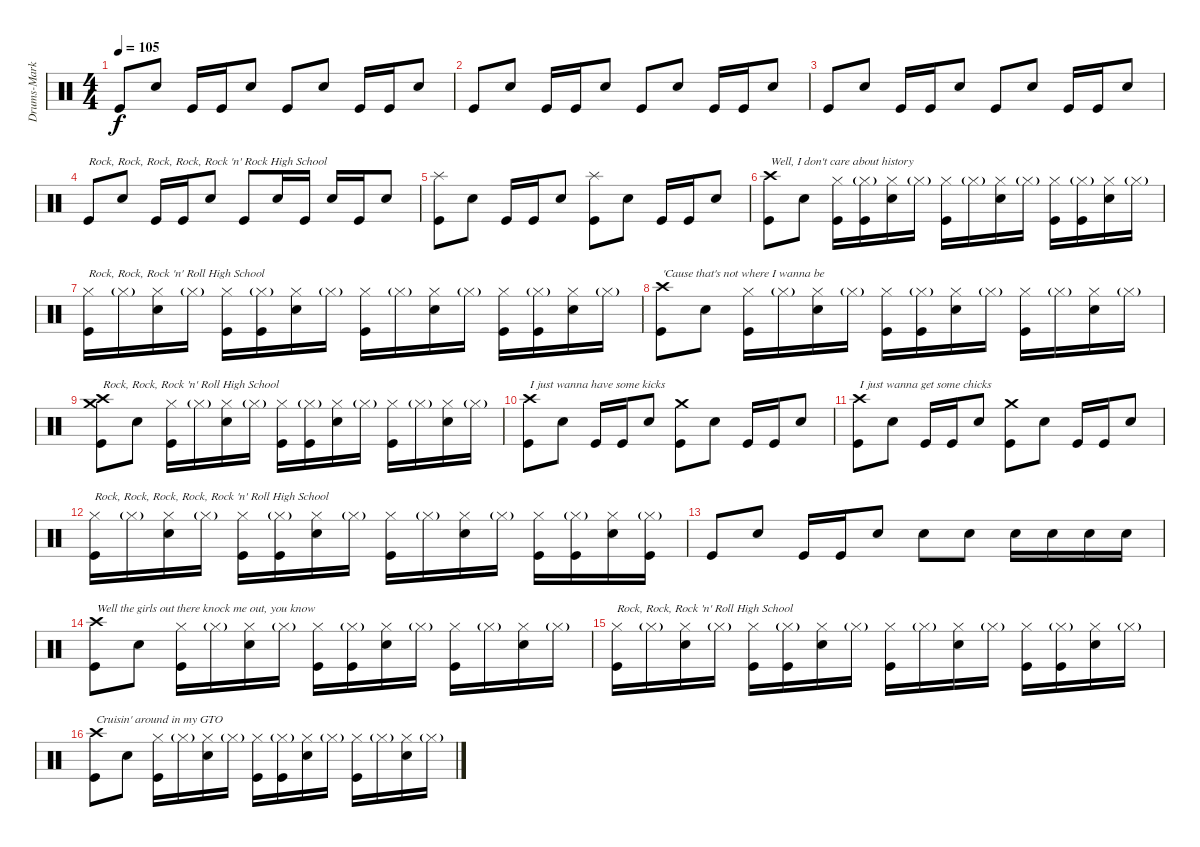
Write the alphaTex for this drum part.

\track ("Drums-Marky Ramone" "Drums-Mark") {instrument percussion}
\staff {score}
\articulation defaults
\ts (4 4)
\tempo 105
\clef neutral
\ks c "Kick (hit)".8{dy f} "Snare (hit) 2".8 "Kick (hit)".16 "Kick (hit)".16 "Snare (hit) 2".8 "Kick (hit)".8 "Snare (hit) 2".8 "Kick (hit)".16 "Kick (hit)".16 "Snare (hit) 2".8
|
"Kick (hit)".8 "Snare (hit) 2".8 "Kick (hit)".16 "Kick (hit)".16 "Snare (hit) 2".8 "Kick (hit)".8 "Snare (hit) 2".8 "Kick (hit)".16 "Kick (hit)".16 "Snare (hit) 2".8 |
"Kick (hit)".8 "Snare (hit) 2".8 "Kick (hit)".16 "Kick (hit)".16 "Snare (hit) 2".8 "Kick (hit)".8 "Snare (hit) 2".8 "Kick (hit)".16 "Kick (hit)".16 "Snare (hit) 2".8 |
"Kick (hit)".8{txt "Rock, Rock, Rock, Rock, Rock 'n' Rock High School"} "Snare (hit) 2".8 "Kick (hit)".16 "Kick (hit)".16 "Snare (hit) 2".8 "Kick (hit)".8 "Snare (hit) 2".16 "Kick (hit)".16 "Snare (hit) 2".16 "Kick (hit)".16 "Snare (hit) 2".8 |
("Splash (hit)" "Kick (hit)").8 "Snare (hit) 2".8 "Kick (hit)".16 "Kick (hit)".16 "Snare (hit) 2".8 ("Splash (hit)" "Kick (hit)").8 "Snare (hit) 2".8 "Kick (hit)".16 "Kick (hit)".16 "Snare (hit) 2".8 |
("Crash high (hit)" "Kick (hit)").8{txt "Well, I don't care about history"} "Snare (hit) 2".8 ("Hi-Hat (closed)" "Kick (hit)").16 ("Hi-Hat (closed)"{g} "Kick (hit)").16 ("Hi-Hat (closed)" "Snare (hit) 2").16 "Hi-Hat (closed)"{g}.16 ("Hi-Hat (closed)" "Kick (hit)").16 "Hi-Hat (closed)"{g}.16 ("Hi-Hat (closed)" "Snare (hit) 2").16 "Hi-Hat (closed)"{g}.16 ("Hi-Hat (closed)" "Kick (hit)").16 ("Hi-Hat (closed)"{g} "Kick (hit)").16 ("Hi-Hat (closed)" "Snare (hit) 2").16 "Hi-Hat (closed)"{g}.16 |
("Hi-Hat (closed)" "Kick (hit)").16{txt "Rock, Rock, Rock 'n' Roll High School"} "Hi-Hat (closed)"{g}.16 ("Hi-Hat (closed)" "Snare (hit) 2").16 "Hi-Hat (closed)"{g}.16 ("Hi-Hat (closed)" "Kick (hit)").16 ("Hi-Hat (closed)"{g} "Kick (hit)").16 ("Hi-Hat (closed)" "Snare (hit) 2").16 "Hi-Hat (closed)"{g}.16 ("Hi-Hat (closed)" "Kick (hit)").16 "Hi-Hat (closed)"{g}.16 ("Hi-Hat (closed)" "Snare (hit) 2").16 "Hi-Hat (closed)"{g}.16 ("Hi-Hat (closed)" "Kick (hit)").16 ("Hi-Hat (closed)"{g} "Kick (hit)").16 ("Hi-Hat (closed)" "Snare (hit) 2").16 "Hi-Hat (closed)"{g}.16 |
("Crash high (hit)" "Kick (hit)").8{txt "'Cause that's not where I wanna be"} "Snare (hit) 2".8 ("Hi-Hat (closed)" "Kick (hit)").16 "Hi-Hat (closed)"{g}.16 ("Hi-Hat (closed)" "Snare (hit) 2").16 "Hi-Hat (closed)"{g}.16 ("Hi-Hat (closed)" "Kick (hit)").16 ("Hi-Hat (closed)"{g} "Kick (hit)").16 ("Hi-Hat (closed)" "Snare (hit) 2").16 "Hi-Hat (closed)"{g}.16 ("Hi-Hat (closed)" "Kick (hit)").16 "Hi-Hat (closed)"{g}.16 ("Hi-Hat (closed)" "Snare (hit) 2").16 "Hi-Hat (closed)"{g}.16 |
("Crash high (hit)" "Crash medium (hit)" "Kick (hit)").8{txt "Rock, Rock, Rock 'n' Roll High School"} "Snare (hit) 2".8 ("Hi-Hat (closed)" "Kick (hit)").16 "Hi-Hat (closed)"{g}.16 ("Hi-Hat (closed)" "Snare (hit) 2").16 "Hi-Hat (closed)"{g}.16 ("Hi-Hat (closed)" "Kick (hit)").16 ("Hi-Hat (closed)"{g} "Kick (hit)").16 ("Hi-Hat (closed)" "Snare (hit) 2").16 "Hi-Hat (closed)"{g}.16 ("Hi-Hat (closed)" "Kick (hit)").16 "Hi-Hat (closed)"{g}.16 ("Hi-Hat (closed)" "Snare (hit) 2").16 "Hi-Hat (closed)"{g}.16 |
("Crash high (hit)" "Kick (hit)").8{txt "I just wanna have some kicks"} "Snare (hit) 2".8 "Kick (hit)".16 "Kick (hit)".16 "Snare (hit) 2".8 ("Crash medium (hit)" "Kick (hit)").8 "Snare (hit) 2".8 "Kick (hit)".16 "Kick (hit)".16 "Snare (hit) 2".8 |
("Crash high (hit)" "Kick (hit)").8{txt "I just wanna get some chicks"} "Snare (hit) 2".8 "Kick (hit)".16 "Kick (hit)".16 "Snare (hit) 2".8 ("Crash medium (hit)" "Kick (hit)").8 "Snare (hit) 2".8 "Kick (hit)".16 "Kick (hit)".16 "Snare (hit) 2".8 |
("Hi-Hat (closed)" "Kick (hit)").16{txt "Rock, Rock, Rock, Rock, Rock 'n' Roll High School"} "Hi-Hat (closed)"{g}.16 ("Hi-Hat (closed)" "Snare (hit) 2").16 "Hi-Hat (closed)"{g}.16 ("Hi-Hat (closed)" "Kick (hit)").16 ("Hi-Hat (closed)"{g} "Kick (hit)").16 ("Hi-Hat (closed)" "Snare (hit) 2").16 "Hi-Hat (closed)"{g}.16 ("Hi-Hat (closed)" "Kick (hit)").16 "Hi-Hat (closed)"{g}.16 ("Hi-Hat (closed)" "Snare (hit) 2").16 "Hi-Hat (closed)"{g}.16 ("Hi-Hat (closed)" "Kick (hit)").16 ("Hi-Hat (closed)"{g} "Kick (hit)").16 ("Hi-Hat (closed)" "Snare (hit) 2").16 ("Hi-Hat (closed)"{g} "Kick (hit)").16 |
"Kick (hit)".8 "Snare (hit) 2".8 "Kick (hit)".16 "Kick (hit)".16 "Snare (hit) 2".8 "Snare (hit) 2".8 "Snare (hit) 2".8 "Snare (hit) 2".16 "Snare (hit) 2".16 "Snare (hit) 2".16 "Snare (hit) 2".16 |
("Crash high (hit)" "Kick (hit)").8{txt "Well the girls out there knock me out, you know"} "Snare (hit) 2".8 ("Hi-Hat (closed)" "Kick (hit)").16 "Hi-Hat (closed)"{g}.16 ("Hi-Hat (closed)" "Snare (hit) 2").16 "Hi-Hat (closed)"{g}.16 ("Hi-Hat (closed)" "Kick (hit)").16 ("Hi-Hat (closed)"{g} "Kick (hit)").16 ("Hi-Hat (closed)" "Snare (hit) 2").16 "Hi-Hat (closed)"{g}.16 ("Hi-Hat (closed)" "Kick (hit)").16 "Hi-Hat (closed)"{g}.16 ("Hi-Hat (closed)" "Snare (hit) 2").16 "Hi-Hat (closed)"{g}.16 |
("Hi-Hat (closed)" "Kick (hit)").16{txt "Rock, Rock, Rock 'n' Roll High School"} "Hi-Hat (closed)"{g}.16 ("Hi-Hat (closed)" "Snare (hit) 2").16 "Hi-Hat (closed)"{g}.16 ("Hi-Hat (closed)" "Kick (hit)").16 ("Hi-Hat (closed)"{g} "Kick (hit)").16 ("Hi-Hat (closed)" "Snare (hit) 2").16 "Hi-Hat (closed)"{g}.16 ("Hi-Hat (closed)" "Kick (hit)").16 "Hi-Hat (closed)"{g}.16 ("Hi-Hat (closed)" "Snare (hit) 2").16 "Hi-Hat (closed)"{g}.16 ("Hi-Hat (closed)" "Kick (hit)").16 ("Hi-Hat (closed)"{g} "Kick (hit)").16 ("Hi-Hat (closed)" "Snare (hit) 2").16 "Hi-Hat (closed)"{g}.16 |
("Crash high (hit)" "Kick (hit)").8{txt "Cruisin' around in my GTO"} "Snare (hit) 2".8 ("Hi-Hat (closed)" "Kick (hit)").16 "Hi-Hat (closed)"{g}.16 ("Hi-Hat (closed)" "Snare (hit) 2").16 "Hi-Hat (closed)"{g}.16 ("Hi-Hat (closed)" "Kick (hit)").16 ("Hi-Hat (closed)"{g} "Kick (hit)").16 ("Hi-Hat (closed)" "Snare (hit) 2").16 "Hi-Hat (closed)"{g}.16 ("Hi-Hat (closed)" "Kick (hit)").16 "Hi-Hat (closed)"{g}.16 ("Hi-Hat (closed)" "Snare (hit) 2").16 "Hi-Hat (closed)"{g}.16
